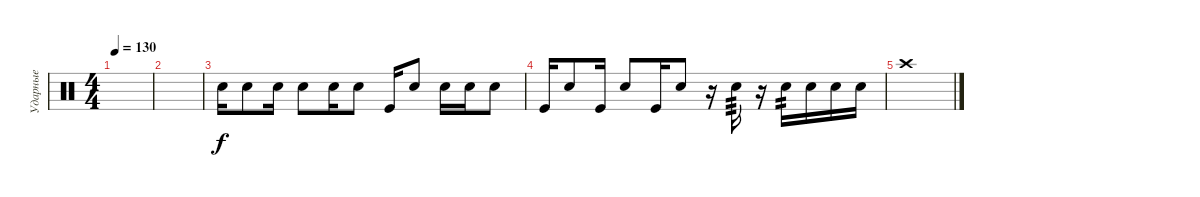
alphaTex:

\track ("Ударные" "Ударные") {instrument percussion}
\staff {score}
\articulation defaults
\ts (4 4)
\tempo 130
\clef neutral
\ks c
|
|
"Electric Snare (hit)".16 "Electric Snare (hit)".8 "Electric Snare (hit)".16 "Electric Snare (hit)".8 "Electric Snare (hit)".16 "Electric Snare (hit)".8 "Kick (hit)".16 "Electric Snare (hit)".8 "Electric Snare (hit)".16 "Electric Snare (hit)".16 "Electric Snare (hit)".8 |
"Kick (hit)".16 "Electric Snare (hit)".8 "Kick (hit)".16 "Electric Snare (hit)".8 "Kick (hit)".16 "Electric Snare (hit)".8 r.16 "Electric Snare (hit)".16{tp 3} r.16 "Electric Snare (hit)".16{tp 2} "Electric Snare (hit)".16 "Electric Snare (hit)".16 "Electric Snare (hit)".16 |
"Crash high (hit)".1
